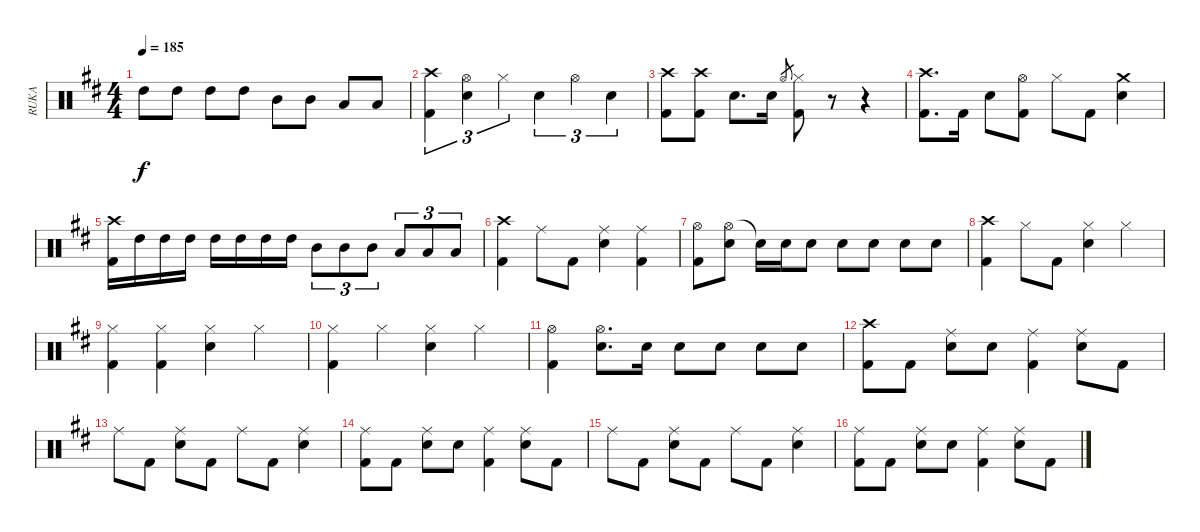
\track ("RUKA" "RUKA") {instrument percussion}
\staff {score}
\articulation defaults
\ts (4 4)
\tempo 185
\clef neutral
\ks d "High Tom (hit)".8{dy f} "High Tom (hit)".8 "High Tom (hit)".8 "High Tom (hit)".8 "Mid Tom (hit)".8 "Mid Tom (hit)".8 "Low Tom (hit)".8 "Low Tom (hit)".8
|
("Crash high (hit)" "Kick (hit) 2").4{tu (3 2)} ("Hi-Hat (open)" "Snare (hit) 2").4{tu (3 2)} "Hi-Hat (closed)".4{tu (3 2)} "Snare (hit) 2".4{tu (3 2)} "Hi-Hat (open)".4{tu (3 2)} "Snare (hit) 2".4{tu (3 2)} |
("Crash high (hit)" "Kick (hit) 2").8 ("Crash high (hit)" "Kick (hit) 2").8 "Snare (hit) 2".8{d} "Snare (hit) 2".16 "Hi-Hat (open)".8{gr} ("Hi-Hat (closed)" "Kick (hit) 2").8 r.8 r.4 |
("Crash high (hit)" "Kick (hit) 2").8{d} "Kick (hit) 2".16 "Snare (hit) 2".8 ("Hi-Hat (open)" "Kick (hit) 2").8 "Hi-Hat (closed)".8 "Kick (hit) 2".8 ("Crash medium (hit)" "Snare (hit) 2").4 |
("Crash high (hit)" "Kick (hit) 2").16 "High Tom (hit)".16 "High Tom (hit)".16 "High Tom (hit)".16 "High Tom (hit)".16 "High Tom (hit)".16 "High Tom (hit)".16 "High Tom (hit)".16 "Mid Tom (hit)".8{tu (3 2)} "Mid Tom (hit)".8{tu (3 2)} "Mid Tom (hit)".8{tu (3 2)} "Low Tom (hit)".8{tu (3 2)} "Low Tom (hit)".8{tu (3 2)} "Low Tom (hit)".8{tu (3 2)} |
("Crash high (hit)" "Kick (hit) 2").4 "Ride (middle)".8 "Kick (hit) 2".8 ("Ride (middle)" "Snare (hit) 2").4 ("Ride (middle)" "Kick (hit) 2").4 |
("Hi-Hat (open)" "Kick (hit) 2").8 ("Hi-Hat (open)" "Snare (hit) 2").8 "Snare (hit)"{t}.16 "Snare (hit) 2".16 "Snare (hit) 2".8 "Snare (hit) 2".8 "Snare (hit) 2".8 "Snare (hit) 2".8 "Snare (hit) 2".8 |
("Crash high (hit)" "Kick (hit) 2").4 "Hi-Hat (closed)".8 "Kick (hit) 2".8 ("Hi-Hat (closed)" "Snare (hit) 2").4 "Hi-Hat (closed)".4 |
("Hi-Hat (closed)" "Kick (hit) 2").4 ("Hi-Hat (closed)" "Kick (hit) 2").4 ("Hi-Hat (closed)" "Snare (hit) 2").4 "Hi-Hat (closed)".4 |
("Hi-Hat (closed)" "Kick (hit) 2").4 "Hi-Hat (closed)".4 ("Hi-Hat (closed)" "Snare (hit) 2").4 "Hi-Hat (closed)".4 |
("Hi-Hat (open)" "Kick (hit) 2").4 ("Hi-Hat (open)" "Snare (hit) 2").8{d} "Snare (hit) 2".16 "Snare (hit) 2".8 "Snare (hit) 2".8 "Snare (hit) 2".8 "Snare (hit) 2".8 |
("Crash high (hit)" "Kick (hit) 2").8 "Kick (hit) 2".8 ("Ride (middle)" "Snare (hit) 2").8 "Snare (hit) 2".8 ("Ride (middle)" "Kick (hit) 2").4 ("Ride (middle)" "Snare (hit) 2").8 "Kick (hit) 2".8 |
"Ride (middle)".8 "Kick (hit) 2".8 ("Ride (middle)" "Snare (hit) 2").8 "Kick (hit) 2".8 "Ride (middle)".8 "Kick (hit) 2".8 ("Ride (middle)" "Snare (hit) 2").4 |
("Ride (middle)" "Kick (hit) 2").8 "Kick (hit) 2".8 ("Ride (middle)" "Snare (hit) 2").8 "Snare (hit) 2".8 ("Ride (middle)" "Kick (hit) 2").4 ("Ride (middle)" "Snare (hit) 2").8 "Kick (hit) 2".8 |
"Ride (middle)".8 "Kick (hit) 2".8 ("Ride (middle)" "Snare (hit) 2").8 "Kick (hit) 2".8 "Ride (middle)".8 "Kick (hit) 2".8 ("Ride (middle)" "Snare (hit) 2").4 |
("Ride (middle)" "Kick (hit) 2").8 "Kick (hit) 2".8 ("Ride (middle)" "Snare (hit) 2").8 "Snare (hit) 2".8 ("Ride (middle)" "Kick (hit) 2").4 ("Ride (middle)" "Snare (hit) 2").8 "Kick (hit) 2".8
